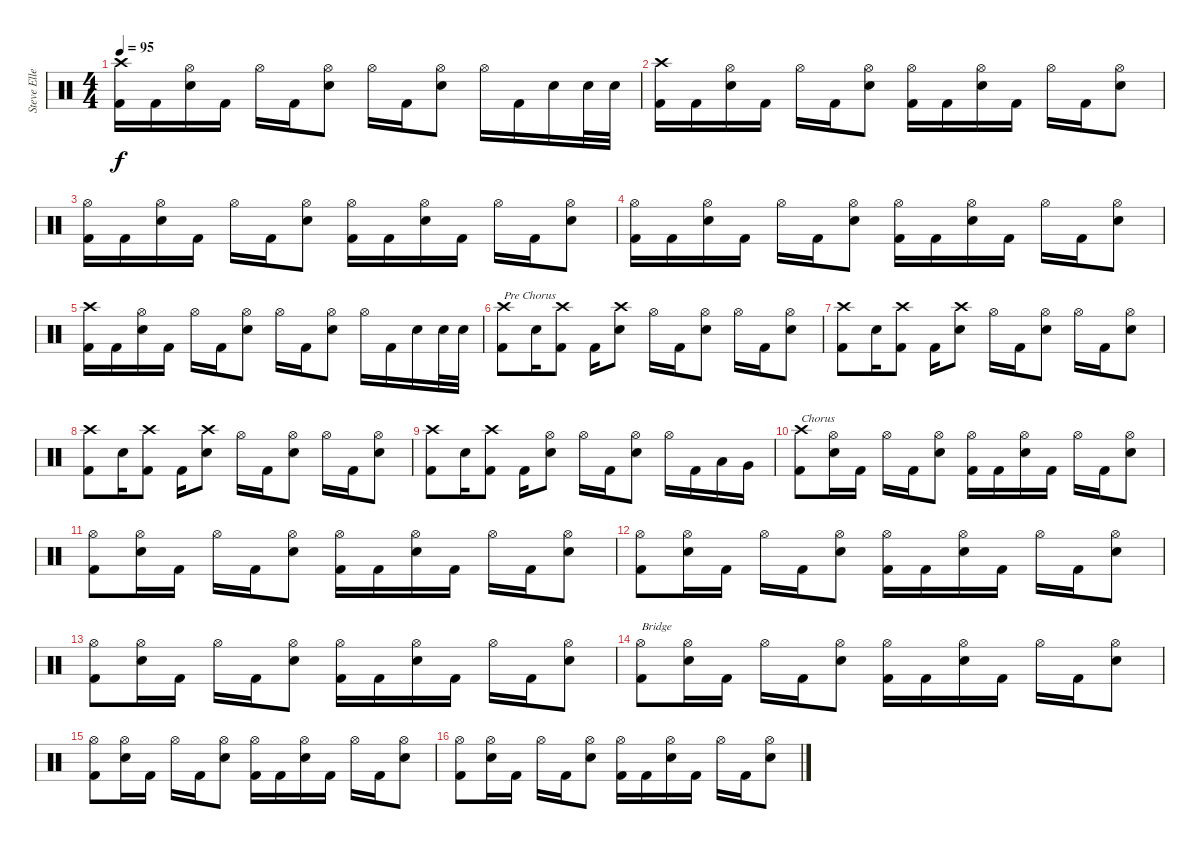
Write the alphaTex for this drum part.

\track ("Steve Ellett" "Steve Elle") {instrument percussion}
\staff {score}
\articulation defaults
\ts (4 4)
\tempo 95
\clef neutral
\ks c
("Crash high (hit)" "Kick (hit) 2").16{dy f} "Kick (hit) 2".16 ("Hi-Hat (open)" "Snare (hit) 2").16 "Kick (hit) 2".16 "Hi-Hat (open)".16 "Kick (hit) 2".16 ("Hi-Hat (open)" "Snare (hit) 2").8 "Hi-Hat (open)".16 "Kick (hit) 2".16 ("Hi-Hat (open)" "Snare (hit) 2").8 "Hi-Hat (open)".16 "Kick (hit) 2".16 "Snare (hit) 2".16 "Snare (hit) 2".32 "Snare (hit) 2".32 |
("Crash high (hit)" "Kick (hit) 2").16 "Kick (hit) 2".16 ("Hi-Hat (open)" "Snare (hit) 2").16 "Kick (hit) 2".16 "Hi-Hat (open)".16 "Kick (hit) 2".16 ("Hi-Hat (open)" "Snare (hit) 2").8 ("Hi-Hat (open)" "Kick (hit) 2").16 "Kick (hit) 2".16 ("Hi-Hat (open)" "Snare (hit) 2").16 "Kick (hit) 2".16 "Hi-Hat (open)".16 "Kick (hit) 2".16 ("Hi-Hat (open)" "Snare (hit) 2").8 |
("Hi-Hat (open)" "Kick (hit) 2").16 "Kick (hit) 2".16 ("Hi-Hat (open)" "Snare (hit) 2").16 "Kick (hit) 2".16 "Hi-Hat (open)".16 "Kick (hit) 2".16 ("Hi-Hat (open)" "Snare (hit) 2").8 ("Hi-Hat (open)" "Kick (hit) 2").16 "Kick (hit) 2".16 ("Hi-Hat (open)" "Snare (hit) 2").16 "Kick (hit) 2".16 "Hi-Hat (open)".16 "Kick (hit) 2".16 ("Hi-Hat (open)" "Snare (hit) 2").8 |
("Hi-Hat (open)" "Kick (hit) 2").16 "Kick (hit) 2".16 ("Hi-Hat (open)" "Snare (hit) 2").16 "Kick (hit) 2".16 "Hi-Hat (open)".16 "Kick (hit) 2".16 ("Hi-Hat (open)" "Snare (hit) 2").8 ("Hi-Hat (open)" "Kick (hit) 2").16 "Kick (hit) 2".16 ("Hi-Hat (open)" "Snare (hit) 2").16 "Kick (hit) 2".16 "Hi-Hat (open)".16 "Kick (hit) 2".16 ("Hi-Hat (open)" "Snare (hit) 2").8 |
("Crash high (hit)" "Kick (hit) 2").16 "Kick (hit) 2".16 ("Hi-Hat (open)" "Snare (hit) 2").16 "Kick (hit) 2".16 "Hi-Hat (open)".16 "Kick (hit) 2".16 ("Hi-Hat (open)" "Snare (hit) 2").8 "Hi-Hat (open)".16 "Kick (hit) 2".16 ("Hi-Hat (open)" "Snare (hit) 2").8 "Hi-Hat (open)".16 "Kick (hit) 2".16 "Snare (hit) 2".16 "Snare (hit) 2".32 "Snare (hit) 2".32 |
("Crash high (hit)" "Kick (hit) 2").8{txt "Pre Chorus"} "Snare (hit) 2".16 ("Crash high (hit)" "Kick (hit) 2").8 "Kick (hit) 2".16 ("Crash high (hit)" "Snare (hit) 2").8 "Hi-Hat (open)".16 "Kick (hit) 2".16 ("Hi-Hat (open)" "Snare (hit) 2").8 "Hi-Hat (open)".16 "Kick (hit) 2".16 ("Hi-Hat (open)" "Snare (hit) 2").8 |
("Crash high (hit)" "Kick (hit) 2").8 "Snare (hit) 2".16 ("Crash high (hit)" "Kick (hit) 2").8 "Kick (hit) 2".16 ("Crash high (hit)" "Snare (hit) 2").8 "Hi-Hat (open)".16 "Kick (hit) 2".16 ("Hi-Hat (open)" "Snare (hit) 2").8 "Hi-Hat (open)".16 "Kick (hit) 2".16 ("Hi-Hat (open)" "Snare (hit) 2").8 |
("Crash high (hit)" "Kick (hit) 2").8 "Snare (hit) 2".16 ("Crash high (hit)" "Kick (hit) 2").8 "Kick (hit) 2".16 ("Crash high (hit)" "Snare (hit) 2").8 "Hi-Hat (open)".16 "Kick (hit) 2".16 ("Hi-Hat (open)" "Snare (hit) 2").8 "Hi-Hat (open)".16 "Kick (hit) 2".16 ("Hi-Hat (open)" "Snare (hit) 2").8 |
("Crash high (hit)" "Kick (hit) 2").8 "Snare (hit) 2".16 ("Crash high (hit)" "Kick (hit) 2").8 "Kick (hit) 2".16 ("Hi-Hat (open)" "Snare (hit) 2").8 "Hi-Hat (open)".16 "Kick (hit) 2".16 ("Hi-Hat (open)" "Snare (hit) 2").8 "Hi-Hat (open)".16 "Kick (hit) 2".16 "Low Tom (hit)".16 "Very Low Tom (hit)".16 |
("Crash high (hit)" "Kick (hit) 2").8{txt "Chorus"} ("Hi-Hat (open)" "Snare (hit) 2").16 "Kick (hit) 2".16 "Hi-Hat (open)".16 "Kick (hit) 2".16 ("Hi-Hat (open)" "Snare (hit) 2").8 ("Hi-Hat (open)" "Kick (hit) 2").16 "Kick (hit) 2".16 ("Hi-Hat (open)" "Snare (hit) 2").16 "Kick (hit) 2".16 "Hi-Hat (open)".16 "Kick (hit) 2".16 ("Hi-Hat (open)" "Snare (hit) 2").8 |
("Hi-Hat (open)" "Kick (hit) 2").8 ("Hi-Hat (open)" "Snare (hit) 2").16 "Kick (hit) 2".16 "Hi-Hat (open)".16 "Kick (hit) 2".16 ("Hi-Hat (open)" "Snare (hit) 2").8 ("Hi-Hat (open)" "Kick (hit) 2").16 "Kick (hit) 2".16 ("Hi-Hat (open)" "Snare (hit) 2").16 "Kick (hit) 2".16 "Hi-Hat (open)".16 "Kick (hit) 2".16 ("Hi-Hat (open)" "Snare (hit) 2").8 |
("Hi-Hat (open)" "Kick (hit) 2").8 ("Hi-Hat (open)" "Snare (hit) 2").16 "Kick (hit) 2".16 "Hi-Hat (open)".16 "Kick (hit) 2".16 ("Hi-Hat (open)" "Snare (hit) 2").8 ("Hi-Hat (open)" "Kick (hit) 2").16 "Kick (hit) 2".16 ("Hi-Hat (open)" "Snare (hit) 2").16 "Kick (hit) 2".16 "Hi-Hat (open)".16 "Kick (hit) 2".16 ("Hi-Hat (open)" "Snare (hit) 2").8 |
("Hi-Hat (open)" "Kick (hit) 2").8 ("Hi-Hat (open)" "Snare (hit) 2").16 "Kick (hit) 2".16 "Hi-Hat (open)".16 "Kick (hit) 2".16 ("Hi-Hat (open)" "Snare (hit) 2").8 ("Hi-Hat (open)" "Kick (hit) 2").16 "Kick (hit) 2".16 ("Hi-Hat (open)" "Snare (hit) 2").16 "Kick (hit) 2".16 "Hi-Hat (open)".16 "Kick (hit) 2".16 ("Hi-Hat (open)" "Snare (hit) 2").8 |
("Hi-Hat (open)" "Kick (hit) 2").8{txt "Bridge"} ("Hi-Hat (open)" "Snare (hit) 2").16 "Kick (hit) 2".16 "Hi-Hat (open)".16 "Kick (hit) 2".16 ("Hi-Hat (open)" "Snare (hit) 2").8 ("Hi-Hat (open)" "Kick (hit) 2").16 "Kick (hit) 2".16 ("Hi-Hat (open)" "Snare (hit) 2").16 "Kick (hit) 2".16 "Hi-Hat (open)".16 "Kick (hit) 2".16 ("Hi-Hat (open)" "Snare (hit) 2").8 |
("Hi-Hat (open)" "Kick (hit) 2").8 ("Hi-Hat (open)" "Snare (hit) 2").16 "Kick (hit) 2".16 "Hi-Hat (open)".16 "Kick (hit) 2".16 ("Hi-Hat (open)" "Snare (hit) 2").8 ("Hi-Hat (open)" "Kick (hit) 2").16 "Kick (hit) 2".16 ("Hi-Hat (open)" "Snare (hit) 2").16 "Kick (hit) 2".16 "Hi-Hat (open)".16 "Kick (hit) 2".16 ("Hi-Hat (open)" "Snare (hit) 2").8 |
("Hi-Hat (open)" "Kick (hit) 2").8 ("Hi-Hat (open)" "Snare (hit) 2").16 "Kick (hit) 2".16 "Hi-Hat (open)".16 "Kick (hit) 2".16 ("Hi-Hat (open)" "Snare (hit) 2").8 ("Hi-Hat (open)" "Kick (hit) 2").16 "Kick (hit) 2".16 ("Hi-Hat (open)" "Snare (hit) 2").16 "Kick (hit) 2".16 "Hi-Hat (open)".16 "Kick (hit) 2".16 ("Hi-Hat (open)" "Snare (hit) 2").8
